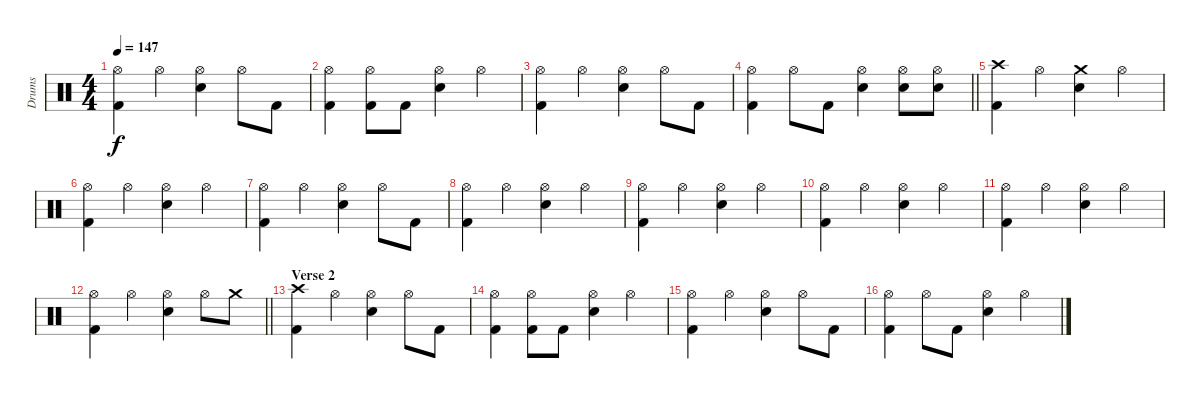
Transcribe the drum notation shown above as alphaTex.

\track ("Drums" "Drums") {instrument percussion}
\staff {score}
\articulation defaults
\ts (4 4)
\tempo 147
\clef neutral
\ks c
("Hi-Hat (open)" "Kick (hit) 2").4{dy f} "Hi-Hat (open)".4 ("Hi-Hat (open)" "Electric Snare (hit)").4 "Hi-Hat (open)".8 "Kick (hit) 2".8 |
("Hi-Hat (open)" "Kick (hit) 2").4 ("Hi-Hat (open)" "Kick (hit) 2").8 "Kick (hit) 2".8 ("Hi-Hat (open)" "Electric Snare (hit)").4 "Hi-Hat (open)".4 |
("Hi-Hat (open)" "Kick (hit) 2").4 "Hi-Hat (open)".4 ("Hi-Hat (open)" "Electric Snare (hit)").4 "Hi-Hat (open)".8 "Kick (hit) 2".8 |
\barLineRight lightlight
("Hi-Hat (open)" "Kick (hit) 2").4 "Hi-Hat (open)".8 "Kick (hit) 2".8 ("Hi-Hat (open)" "Electric Snare (hit)").4 ("Hi-Hat (open)" "Electric Snare (hit)").8 ("Hi-Hat (open)" "Electric Snare (hit)").8 |
\section ("" "")
("Crash high (hit)" "Kick (hit) 2").4 "Hi-Hat (open)".4 ("Crash medium (hit)" "Electric Snare (hit)").4 "Hi-Hat (open)".4 |
("Hi-Hat (open)" "Kick (hit) 2").4 "Hi-Hat (open)".4 ("Hi-Hat (open)" "Electric Snare (hit)").4 "Hi-Hat (open)".4 |
("Hi-Hat (open)" "Kick (hit) 2").4 "Hi-Hat (open)".4 ("Hi-Hat (open)" "Electric Snare (hit)").4 "Hi-Hat (open)".8 "Kick (hit) 2".8 |
("Hi-Hat (open)" "Kick (hit) 2").4 "Hi-Hat (open)".4 ("Hi-Hat (open)" "Electric Snare (hit)").4 "Hi-Hat (open)".4 |
("Hi-Hat (open)" "Kick (hit) 2").4 "Hi-Hat (open)".4 ("Hi-Hat (open)" "Electric Snare (hit)").4 "Hi-Hat (open)".4 |
("Hi-Hat (open)" "Kick (hit) 2").4 "Hi-Hat (open)".4 ("Hi-Hat (open)" "Electric Snare (hit)").4 "Hi-Hat (open)".4 |
("Hi-Hat (open)" "Kick (hit) 2").4 "Hi-Hat (open)".4 ("Hi-Hat (open)" "Electric Snare (hit)").4 "Hi-Hat (open)".4 |
\barLineRight lightlight
("Hi-Hat (open)" "Kick (hit) 2").4 "Hi-Hat (open)".4 ("Hi-Hat (open)" "Electric Snare (hit)").4 "Hi-Hat (open)".8 "Crash medium (hit)".8 |
\section ("" "Verse 2")
("Crash high (hit)" "Kick (hit) 2").4 "Hi-Hat (open)".4 ("Hi-Hat (open)" "Electric Snare (hit)").4 "Hi-Hat (open)".8 "Kick (hit) 2".8 |
("Hi-Hat (open)" "Kick (hit) 2").4 ("Hi-Hat (open)" "Kick (hit) 2").8 "Kick (hit) 2".8 ("Hi-Hat (open)" "Electric Snare (hit)").4 "Hi-Hat (open)".4 |
("Hi-Hat (open)" "Kick (hit) 2").4 "Hi-Hat (open)".4 ("Hi-Hat (open)" "Electric Snare (hit)").4 "Hi-Hat (open)".8 "Kick (hit) 2".8 |
("Hi-Hat (open)" "Kick (hit) 2").4 "Hi-Hat (open)".8 "Kick (hit) 2".8 ("Hi-Hat (open)" "Electric Snare (hit)").4 "Hi-Hat (open)".4
